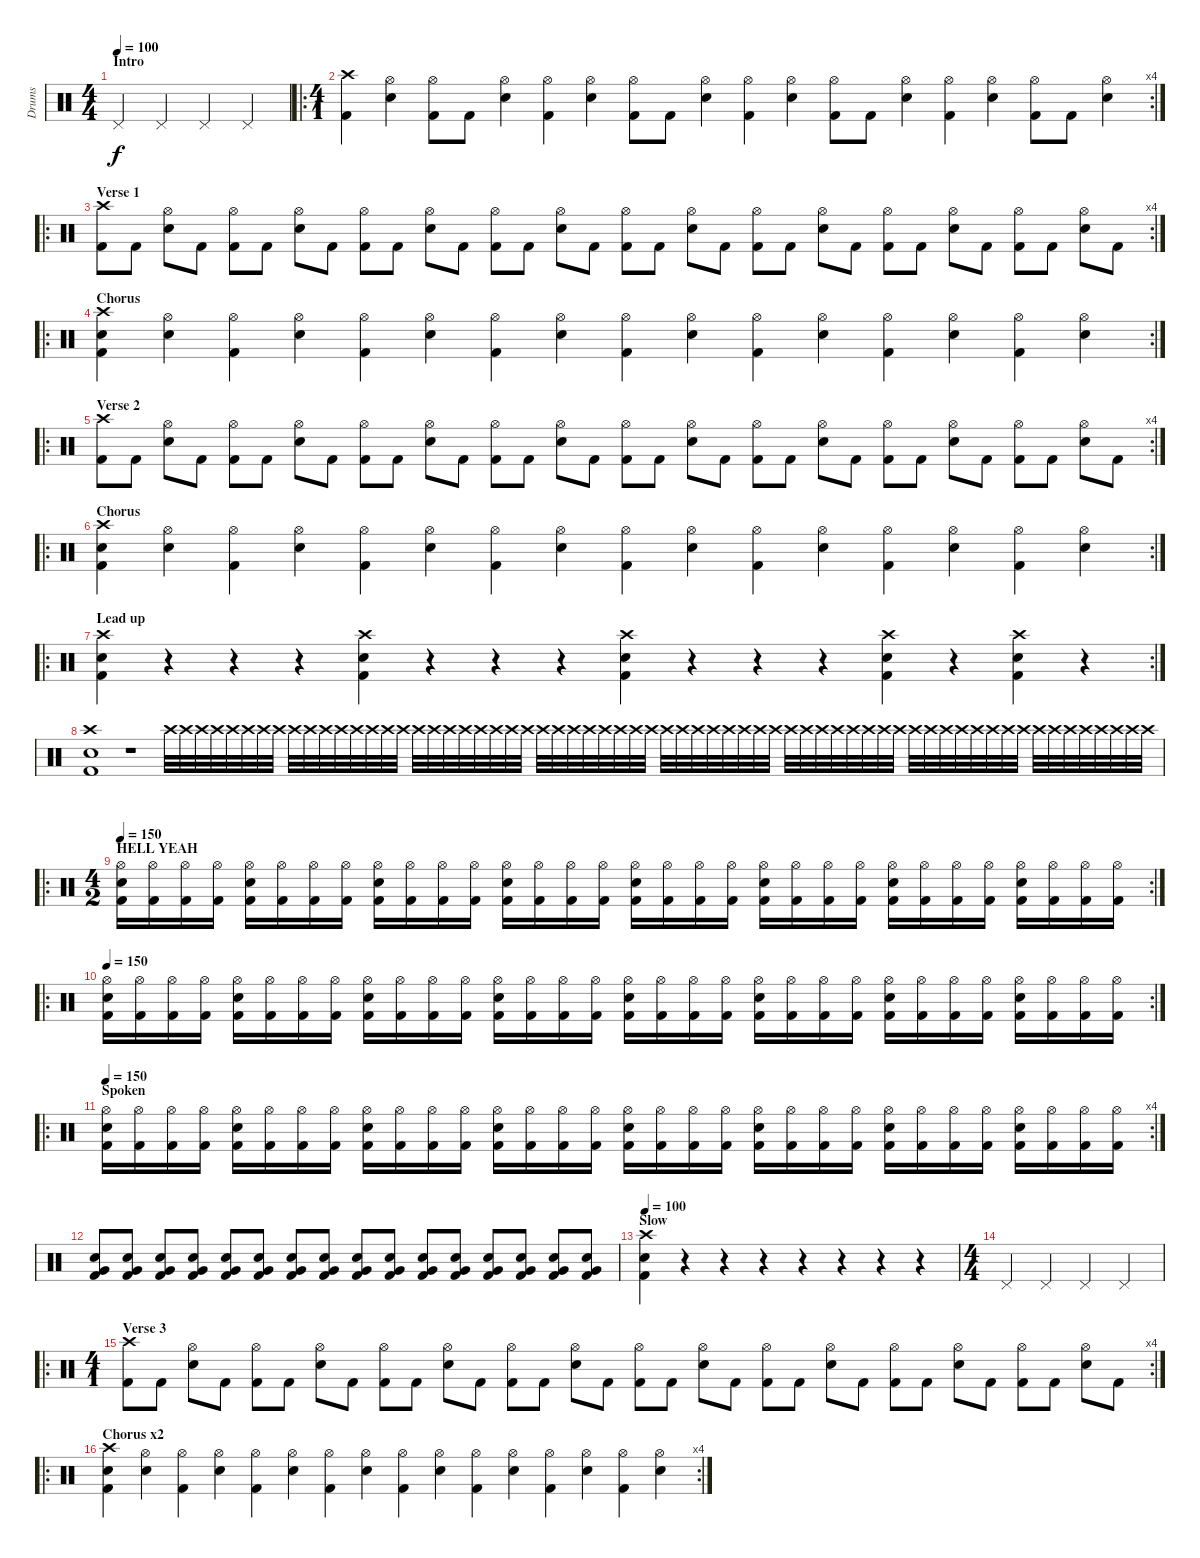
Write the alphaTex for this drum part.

\track ("Drums" "Drums") {instrument percussion}
\staff {score}
\articulation defaults
\ts (4 4)
\section ("" "Intro")
\tempo 100
\clef neutral
\ks c "Pedal Hi-Hat (hit)".4{dy f} "Pedal Hi-Hat (hit)".4 "Pedal Hi-Hat (hit)".4 "Pedal Hi-Hat (hit)".4
|
\ro
\rc 4
\ts (4 1)
("Crash high (hit)" "Kick (hit) 2").4 ("Hi-Hat (open)" "Electric Snare (hit)").4 ("Hi-Hat (open)" "Kick (hit) 2").8 "Kick (hit) 2".8 ("Hi-Hat (open)" "Electric Snare (hit)").4 ("Hi-Hat (open)" "Kick (hit) 2").4 ("Hi-Hat (open)" "Electric Snare (hit)").4 ("Hi-Hat (open)" "Kick (hit) 2").8 "Kick (hit) 2".8 ("Hi-Hat (open)" "Electric Snare (hit)").4 ("Hi-Hat (open)" "Kick (hit) 2").4 ("Hi-Hat (open)" "Electric Snare (hit)").4 ("Hi-Hat (open)" "Kick (hit) 2").8 "Kick (hit) 2".8 ("Hi-Hat (open)" "Electric Snare (hit)").4 ("Hi-Hat (open)" "Kick (hit) 2").4 ("Hi-Hat (open)" "Electric Snare (hit)").4 ("Hi-Hat (open)" "Kick (hit) 2").8 "Kick (hit) 2".8 ("Hi-Hat (open)" "Electric Snare (hit)").4 |
\ro
\rc 4
\section ("" "Verse 1")
("Crash high (hit)" "Kick (hit) 2").8 "Kick (hit) 2".8 ("Hi-Hat (open)" "Electric Snare (hit)").8 "Kick (hit) 2".8 ("Hi-Hat (open)" "Kick (hit) 2").8 "Kick (hit) 2".8 ("Hi-Hat (open)" "Electric Snare (hit)").8 "Kick (hit) 2".8 ("Hi-Hat (open)" "Kick (hit) 2").8 "Kick (hit) 2".8 ("Hi-Hat (open)" "Electric Snare (hit)").8 "Kick (hit) 2".8 ("Hi-Hat (open)" "Kick (hit) 2").8 "Kick (hit) 2".8 ("Hi-Hat (open)" "Electric Snare (hit)").8 "Kick (hit) 2".8 ("Hi-Hat (open)" "Kick (hit) 2").8 "Kick (hit) 2".8 ("Hi-Hat (open)" "Electric Snare (hit)").8 "Kick (hit) 2".8 ("Hi-Hat (open)" "Kick (hit) 2").8 "Kick (hit) 2".8 ("Hi-Hat (open)" "Electric Snare (hit)").8 "Kick (hit) 2".8 ("Hi-Hat (open)" "Kick (hit) 2").8 "Kick (hit) 2".8 ("Hi-Hat (open)" "Electric Snare (hit)").8 "Kick (hit) 2".8 ("Hi-Hat (open)" "Kick (hit) 2").8 "Kick (hit) 2".8 ("Hi-Hat (open)" "Electric Snare (hit)").8 "Kick (hit) 2".8 |
\ro
\rc 2
\section ("" "Chorus")
("Crash high (hit)" "Kick (hit) 2" "Electric Snare (hit)").4 ("Hi-Hat (open)" "Electric Snare (hit)").4 ("Hi-Hat (open)" "Kick (hit) 2").4 ("Hi-Hat (open)" "Electric Snare (hit)").4 ("Hi-Hat (open)" "Kick (hit) 2").4 ("Hi-Hat (open)" "Electric Snare (hit)").4 ("Hi-Hat (open)" "Kick (hit) 2").4 ("Hi-Hat (open)" "Electric Snare (hit)").4 ("Hi-Hat (open)" "Kick (hit) 2").4 ("Hi-Hat (open)" "Electric Snare (hit)").4 ("Hi-Hat (open)" "Kick (hit) 2").4 ("Hi-Hat (open)" "Electric Snare (hit)").4 ("Hi-Hat (open)" "Kick (hit) 2").4 ("Hi-Hat (open)" "Electric Snare (hit)").4 ("Hi-Hat (open)" "Kick (hit) 2").4 ("Hi-Hat (open)" "Electric Snare (hit)").4 |
\ro
\rc 4
\section ("" "Verse 2")
("Crash high (hit)" "Kick (hit) 2").8 "Kick (hit) 2".8 ("Hi-Hat (open)" "Electric Snare (hit)").8 "Kick (hit) 2".8 ("Hi-Hat (open)" "Kick (hit) 2").8 "Kick (hit) 2".8 ("Hi-Hat (open)" "Electric Snare (hit)").8 "Kick (hit) 2".8 ("Hi-Hat (open)" "Kick (hit) 2").8 "Kick (hit) 2".8 ("Hi-Hat (open)" "Electric Snare (hit)").8 "Kick (hit) 2".8 ("Hi-Hat (open)" "Kick (hit) 2").8 "Kick (hit) 2".8 ("Hi-Hat (open)" "Electric Snare (hit)").8 "Kick (hit) 2".8 ("Hi-Hat (open)" "Kick (hit) 2").8 "Kick (hit) 2".8 ("Hi-Hat (open)" "Electric Snare (hit)").8 "Kick (hit) 2".8 ("Hi-Hat (open)" "Kick (hit) 2").8 "Kick (hit) 2".8 ("Hi-Hat (open)" "Electric Snare (hit)").8 "Kick (hit) 2".8 ("Hi-Hat (open)" "Kick (hit) 2").8 "Kick (hit) 2".8 ("Hi-Hat (open)" "Electric Snare (hit)").8 "Kick (hit) 2".8 ("Hi-Hat (open)" "Kick (hit) 2").8 "Kick (hit) 2".8 ("Hi-Hat (open)" "Electric Snare (hit)").8 "Kick (hit) 2".8 |
\ro
\rc 2
\section ("" "Chorus")
("Crash high (hit)" "Kick (hit) 2" "Electric Snare (hit)").4 ("Hi-Hat (open)" "Electric Snare (hit)").4 ("Hi-Hat (open)" "Kick (hit) 2").4 ("Hi-Hat (open)" "Electric Snare (hit)").4 ("Hi-Hat (open)" "Kick (hit) 2").4 ("Hi-Hat (open)" "Electric Snare (hit)").4 ("Hi-Hat (open)" "Kick (hit) 2").4 ("Hi-Hat (open)" "Electric Snare (hit)").4 ("Hi-Hat (open)" "Kick (hit) 2").4 ("Hi-Hat (open)" "Electric Snare (hit)").4 ("Hi-Hat (open)" "Kick (hit) 2").4 ("Hi-Hat (open)" "Electric Snare (hit)").4 ("Hi-Hat (open)" "Kick (hit) 2").4 ("Hi-Hat (open)" "Electric Snare (hit)").4 ("Hi-Hat (open)" "Kick (hit) 2").4 ("Hi-Hat (open)" "Electric Snare (hit)").4 |
\ro
\rc 2
\section ("" "Lead up")
("Crash high (hit)" "Kick (hit) 2" "Electric Snare (hit)").4 r.4 r.4 r.4 ("Crash high (hit)" "Kick (hit) 2" "Electric Snare (hit)").4 r.4 r.4 r.4 ("Crash high (hit)" "Kick (hit) 2" "Electric Snare (hit)").4 r.4 r.4 r.4 ("Crash high (hit)" "Electric Snare (hit)" "Kick (hit) 2").4 r.4 ("Crash high (hit)" "Electric Snare (hit)" "Kick (hit) 2").4 r.4 |
("Crash high (hit)" "Electric Snare (hit)" "Kick (hit) 2").1 r.1 "Crash high (hit)".32 "Crash high (hit)".32 "Crash high (hit)".32 "Crash high (hit)".32 "Crash high (hit)".32 "Crash high (hit)".32 "Crash high (hit)".32 "Crash high (hit)".32 "Crash high (hit)".32 "Crash high (hit)".32 "Crash high (hit)".32 "Crash high (hit)".32 "Crash high (hit)".32 "Crash high (hit)".32 "Crash high (hit)".32 "Crash high (hit)".32 "Crash high (hit)".32 "Crash high (hit)".32 "Crash high (hit)".32 "Crash high (hit)".32 "Crash high (hit)".32 "Crash high (hit)".32 "Crash high (hit)".32 "Crash high (hit)".32 "Crash high (hit)".32 "Crash high (hit)".32 "Crash high (hit)".32 "Crash high (hit)".32 "Crash high (hit)".32 "Crash high (hit)".32 "Crash high (hit)".32 "Crash high (hit)".32 "Crash high (hit)".32 "Crash high (hit)".32 "Crash high (hit)".32 "Crash high (hit)".32 "Crash high (hit)".32 "Crash high (hit)".32 "Crash high (hit)".32 "Crash high (hit)".32 "Crash high (hit)".32 "Crash high (hit)".32 "Crash high (hit)".32 "Crash high (hit)".32 "Crash high (hit)".32 "Crash high (hit)".32 "Crash high (hit)".32 "Crash high (hit)".32 "Crash high (hit)".32 "Crash high (hit)".32 "Crash high (hit)".32 "Crash high (hit)".32 "Crash high (hit)".32 "Crash high (hit)".32 "Crash high (hit)".32 "Crash high (hit)".32 "Crash high (hit)".32 "Crash high (hit)".32 "Crash high (hit)".32 "Crash high (hit)".32 "Crash high (hit)".32 "Crash high (hit)".32 "Crash high (hit)".32 "Crash high (hit)".32 |
\ro
\rc 2
\ts (4 2)
\section ("" "HELL YEAH")
\tempo 150
("Hi-Hat (open)" "Kick (hit) 2" "Electric Snare (hit)").16 ("Hi-Hat (open)" "Kick (hit) 2").16 ("Hi-Hat (open)" "Kick (hit) 2").16 ("Hi-Hat (open)" "Kick (hit) 2").16 ("Hi-Hat (open)" "Kick (hit) 2" "Electric Snare (hit)").16 ("Hi-Hat (open)" "Kick (hit) 2").16 ("Hi-Hat (open)" "Kick (hit) 2").16 ("Hi-Hat (open)" "Kick (hit) 2").16 ("Hi-Hat (open)" "Kick (hit) 2" "Electric Snare (hit)").16 ("Hi-Hat (open)" "Kick (hit) 2").16 ("Hi-Hat (open)" "Kick (hit) 2").16 ("Hi-Hat (open)" "Kick (hit) 2").16 ("Hi-Hat (open)" "Kick (hit) 2" "Electric Snare (hit)").16 ("Hi-Hat (open)" "Kick (hit) 2").16 ("Hi-Hat (open)" "Kick (hit) 2").16 ("Hi-Hat (open)" "Kick (hit) 2").16 ("Hi-Hat (open)" "Kick (hit) 2" "Electric Snare (hit)").16 ("Hi-Hat (open)" "Kick (hit) 2").16 ("Hi-Hat (open)" "Kick (hit) 2").16 ("Hi-Hat (open)" "Kick (hit) 2").16 ("Hi-Hat (open)" "Kick (hit) 2" "Electric Snare (hit)").16 ("Hi-Hat (open)" "Kick (hit) 2").16 ("Hi-Hat (open)" "Kick (hit) 2").16 ("Hi-Hat (open)" "Kick (hit) 2").16 ("Hi-Hat (open)" "Kick (hit) 2" "Electric Snare (hit)").16 ("Hi-Hat (open)" "Kick (hit) 2").16 ("Hi-Hat (open)" "Kick (hit) 2").16 ("Hi-Hat (open)" "Kick (hit) 2").16 ("Hi-Hat (open)" "Kick (hit) 2" "Electric Snare (hit)").16 ("Hi-Hat (open)" "Kick (hit) 2").16 ("Hi-Hat (open)" "Kick (hit) 2").16 ("Hi-Hat (open)" "Kick (hit) 2").16 |
\ro
\rc 2
\tempo 150
("Hi-Hat (open)" "Kick (hit) 2" "Electric Snare (hit)").16 ("Hi-Hat (open)" "Kick (hit) 2").16 ("Hi-Hat (open)" "Kick (hit) 2").16 ("Hi-Hat (open)" "Kick (hit) 2").16 ("Hi-Hat (open)" "Kick (hit) 2" "Electric Snare (hit)").16 ("Hi-Hat (open)" "Kick (hit) 2").16 ("Hi-Hat (open)" "Kick (hit) 2").16 ("Hi-Hat (open)" "Kick (hit) 2").16 ("Hi-Hat (open)" "Kick (hit) 2" "Electric Snare (hit)").16 ("Hi-Hat (open)" "Kick (hit) 2").16 ("Hi-Hat (open)" "Kick (hit) 2").16 ("Hi-Hat (open)" "Kick (hit) 2").16 ("Hi-Hat (open)" "Kick (hit) 2" "Electric Snare (hit)").16 ("Hi-Hat (open)" "Kick (hit) 2").16 ("Hi-Hat (open)" "Kick (hit) 2").16 ("Hi-Hat (open)" "Kick (hit) 2").16 ("Hi-Hat (open)" "Kick (hit) 2" "Electric Snare (hit)").16 ("Hi-Hat (open)" "Kick (hit) 2").16 ("Hi-Hat (open)" "Kick (hit) 2").16 ("Hi-Hat (open)" "Kick (hit) 2").16 ("Hi-Hat (open)" "Kick (hit) 2" "Electric Snare (hit)").16 ("Hi-Hat (open)" "Kick (hit) 2").16 ("Hi-Hat (open)" "Kick (hit) 2").16 ("Hi-Hat (open)" "Kick (hit) 2").16 ("Hi-Hat (open)" "Kick (hit) 2" "Electric Snare (hit)").16 ("Hi-Hat (open)" "Kick (hit) 2").16 ("Hi-Hat (open)" "Kick (hit) 2").16 ("Hi-Hat (open)" "Kick (hit) 2").16 ("Hi-Hat (open)" "Kick (hit) 2" "Electric Snare (hit)").16 ("Hi-Hat (open)" "Kick (hit) 2").16 ("Hi-Hat (open)" "Kick (hit) 2").16 ("Hi-Hat (open)" "Kick (hit) 2").16 |
\ro
\rc 4
\section ("" "Spoken")
\tempo 150
("Hi-Hat (open)" "Kick (hit) 2" "Electric Snare (hit)").16 ("Hi-Hat (open)" "Kick (hit) 2").16 ("Hi-Hat (open)" "Kick (hit) 2").16 ("Hi-Hat (open)" "Kick (hit) 2").16 ("Hi-Hat (open)" "Kick (hit) 2" "Electric Snare (hit)").16 ("Hi-Hat (open)" "Kick (hit) 2").16 ("Hi-Hat (open)" "Kick (hit) 2").16 ("Hi-Hat (open)" "Kick (hit) 2").16 ("Hi-Hat (open)" "Kick (hit) 2" "Electric Snare (hit)").16 ("Hi-Hat (open)" "Kick (hit) 2").16 ("Hi-Hat (open)" "Kick (hit) 2").16 ("Hi-Hat (open)" "Kick (hit) 2").16 ("Hi-Hat (open)" "Kick (hit) 2" "Electric Snare (hit)").16 ("Hi-Hat (open)" "Kick (hit) 2").16 ("Hi-Hat (open)" "Kick (hit) 2").16 ("Hi-Hat (open)" "Kick (hit) 2").16 ("Hi-Hat (open)" "Kick (hit) 2" "Electric Snare (hit)").16 ("Hi-Hat (open)" "Kick (hit) 2").16 ("Hi-Hat (open)" "Kick (hit) 2").16 ("Hi-Hat (open)" "Kick (hit) 2").16 ("Hi-Hat (open)" "Kick (hit) 2" "Electric Snare (hit)").16 ("Hi-Hat (open)" "Kick (hit) 2").16 ("Hi-Hat (open)" "Kick (hit) 2").16 ("Hi-Hat (open)" "Kick (hit) 2").16 ("Hi-Hat (open)" "Kick (hit) 2" "Electric Snare (hit)").16 ("Hi-Hat (open)" "Kick (hit) 2").16 ("Hi-Hat (open)" "Kick (hit) 2").16 ("Hi-Hat (open)" "Kick (hit) 2").16 ("Hi-Hat (open)" "Kick (hit) 2" "Electric Snare (hit)").16 ("Hi-Hat (open)" "Kick (hit) 2").16 ("Hi-Hat (open)" "Kick (hit) 2").16 ("Hi-Hat (open)" "Kick (hit) 2").16 |
("Very Low Tom (hit)" "Electric Snare (hit)" "Kick (hit) 2").8 ("Very Low Tom (hit)" "Electric Snare (hit)" "Kick (hit) 2").8 ("Very Low Tom (hit)" "Electric Snare (hit)" "Kick (hit) 2").8 ("Very Low Tom (hit)" "Electric Snare (hit)" "Kick (hit) 2").8 ("Very Low Tom (hit)" "Electric Snare (hit)" "Kick (hit) 2").8 ("Very Low Tom (hit)" "Electric Snare (hit)" "Kick (hit) 2").8 ("Very Low Tom (hit)" "Electric Snare (hit)" "Kick (hit) 2").8 ("Very Low Tom (hit)" "Electric Snare (hit)" "Kick (hit) 2").8 ("Very Low Tom (hit)" "Electric Snare (hit)" "Kick (hit) 2").8 ("Very Low Tom (hit)" "Electric Snare (hit)" "Kick (hit) 2").8 ("Very Low Tom (hit)" "Electric Snare (hit)" "Kick (hit) 2").8 ("Very Low Tom (hit)" "Electric Snare (hit)" "Kick (hit) 2").8 ("Very Low Tom (hit)" "Electric Snare (hit)" "Kick (hit) 2").8 ("Very Low Tom (hit)" "Electric Snare (hit)" "Kick (hit) 2").8 ("Very Low Tom (hit)" "Electric Snare (hit)" "Kick (hit) 2").8 ("Very Low Tom (hit)" "Electric Snare (hit)" "Kick (hit) 2").8 |
\section ("" "Slow")
\tempo 100
("Crash high (hit)" "Kick (hit) 2" "Electric Snare (hit)").4 r.4 r.4 r.4 r.4 r.4 r.4 r.4 |
\ts (4 4)
"Pedal Hi-Hat (hit)".4 "Pedal Hi-Hat (hit)".4 "Pedal Hi-Hat (hit)".4 "Pedal Hi-Hat (hit)".4 |
\ro
\rc 4
\ts (4 1)
\section ("" "Verse 3")
("Crash high (hit)" "Kick (hit) 2").8 "Kick (hit) 2".8 ("Hi-Hat (open)" "Electric Snare (hit)").8 "Kick (hit) 2".8 ("Hi-Hat (open)" "Kick (hit) 2").8 "Kick (hit) 2".8 ("Hi-Hat (open)" "Electric Snare (hit)").8 "Kick (hit) 2".8 ("Hi-Hat (open)" "Kick (hit) 2").8 "Kick (hit) 2".8 ("Hi-Hat (open)" "Electric Snare (hit)").8 "Kick (hit) 2".8 ("Hi-Hat (open)" "Kick (hit) 2").8 "Kick (hit) 2".8 ("Hi-Hat (open)" "Electric Snare (hit)").8 "Kick (hit) 2".8 ("Hi-Hat (open)" "Kick (hit) 2").8 "Kick (hit) 2".8 ("Hi-Hat (open)" "Electric Snare (hit)").8 "Kick (hit) 2".8 ("Hi-Hat (open)" "Kick (hit) 2").8 "Kick (hit) 2".8 ("Hi-Hat (open)" "Electric Snare (hit)").8 "Kick (hit) 2".8 ("Hi-Hat (open)" "Kick (hit) 2").8 "Kick (hit) 2".8 ("Hi-Hat (open)" "Electric Snare (hit)").8 "Kick (hit) 2".8 ("Hi-Hat (open)" "Kick (hit) 2").8 "Kick (hit) 2".8 ("Hi-Hat (open)" "Electric Snare (hit)").8 "Kick (hit) 2".8 |
\ro
\rc 4
\section ("" "Chorus x2")
("Crash high (hit)" "Kick (hit) 2" "Electric Snare (hit)").4 ("Hi-Hat (open)" "Electric Snare (hit)").4 ("Hi-Hat (open)" "Kick (hit) 2").4 ("Hi-Hat (open)" "Electric Snare (hit)").4 ("Hi-Hat (open)" "Kick (hit) 2").4 ("Hi-Hat (open)" "Electric Snare (hit)").4 ("Hi-Hat (open)" "Kick (hit) 2").4 ("Hi-Hat (open)" "Electric Snare (hit)").4 ("Hi-Hat (open)" "Kick (hit) 2").4 ("Hi-Hat (open)" "Electric Snare (hit)").4 ("Hi-Hat (open)" "Kick (hit) 2").4 ("Hi-Hat (open)" "Electric Snare (hit)").4 ("Hi-Hat (open)" "Kick (hit) 2").4 ("Hi-Hat (open)" "Electric Snare (hit)").4 ("Hi-Hat (open)" "Kick (hit) 2").4 ("Hi-Hat (open)" "Electric Snare (hit)").4
